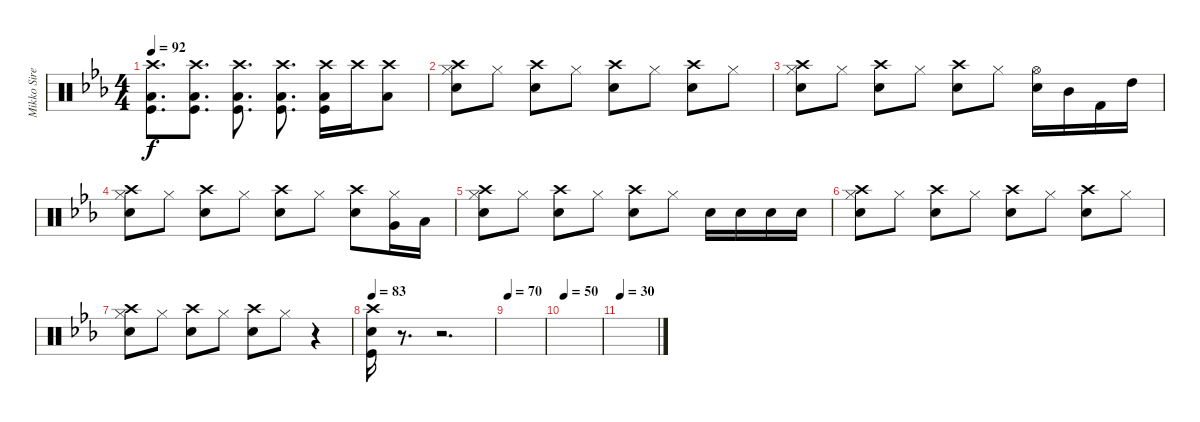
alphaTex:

\track ("Mikko Siren" "Mikko Sire") {instrument percussion}
\staff {score}
\articulation defaults
\ts (4 4)
\tempo 92
\clef neutral
\ks cminor
("Crash high (hit)" "Low Floor Tom (hit)" "Kick (hit)").8{d dy f} ("Crash high (hit)" "Low Floor Tom (hit)" "Kick (hit)").8{d} ("Crash high (hit)" "Low Floor Tom (hit)" "Kick (hit)").8{d} ("Crash high (hit)" "Low Floor Tom (hit)" "Kick (hit)").8{d} ("Crash high (hit)" "Low Floor Tom (hit)" "Kick (hit)").16 "Crash high (hit)".16 ("Crash high (hit)" "Low Floor Tom (hit)").8 |
("Hi-Hat (closed)" "Crash high (hit)" "Snare (hit) 2").8 "Hi-Hat (closed)".8 ("Crash high (hit)" "Snare (hit) 2").8 "Hi-Hat (closed)".8 ("Crash high (hit)" "Snare (hit) 2").8 "Hi-Hat (closed)".8 ("Crash high (hit)" "Snare (hit) 2").8 "Hi-Hat (closed)".8 |
("Hi-Hat (closed)" "Crash high (hit)" "Snare (hit) 2").8 "Hi-Hat (closed)".8 ("Crash high (hit)" "Snare (hit) 2").8 "Hi-Hat (closed)".8 ("Crash high (hit)" "Snare (hit) 2").8 "Hi-Hat (closed)".8 ("Hi-Hat (open)" "Snare (hit) 2").16 "Mid Tom (hit)".16 "Kick (hit) 2".16 "High Tom (hit)".16 |
("Hi-Hat (closed)" "Crash high (hit)" "Snare (hit) 2").8 "Hi-Hat (closed)".8 ("Crash high (hit)" "Snare (hit) 2").8 "Hi-Hat (closed)".8 ("Crash high (hit)" "Snare (hit) 2").8 "Hi-Hat (closed)".8 ("Crash high (hit)" "Snare (hit) 2").8 ("Hi-Hat (closed)" "Very Low Tom (hit)").16 "Low Floor Tom (hit)".16 |
("Hi-Hat (closed)" "Crash high (hit)" "Snare (hit) 2").8 "Hi-Hat (closed)".8 ("Crash high (hit)" "Snare (hit) 2").8 "Hi-Hat (closed)".8 ("Crash high (hit)" "Snare (hit) 2").8 "Hi-Hat (closed)".8 "Snare (hit) 2".16 "Snare (hit) 2".16 "Snare (hit) 2".16 "Snare (hit) 2".16 |
("Hi-Hat (closed)" "Crash high (hit)" "Snare (hit) 2").8 "Hi-Hat (closed)".8 ("Crash high (hit)" "Snare (hit) 2").8 "Hi-Hat (closed)".8 ("Crash high (hit)" "Snare (hit) 2").8 "Hi-Hat (closed)".8 ("Crash high (hit)" "Snare (hit) 2").8 "Hi-Hat (closed)".8 |
("Hi-Hat (closed)" "Crash high (hit)" "Snare (hit) 2").8 "Hi-Hat (closed)".8 ("Crash high (hit)" "Snare (hit) 2").8 "Hi-Hat (closed)".8 ("Crash high (hit)" "Snare (hit) 2").8 "Hi-Hat (closed)".8 r.4 |
\tempo 83
("Crash high (hit)" "Snare (hit) 2" "Kick (hit)").16 r.8{d} r.2{d} |
\tempo 70
|
\tempo 50
|
\tempo 30
